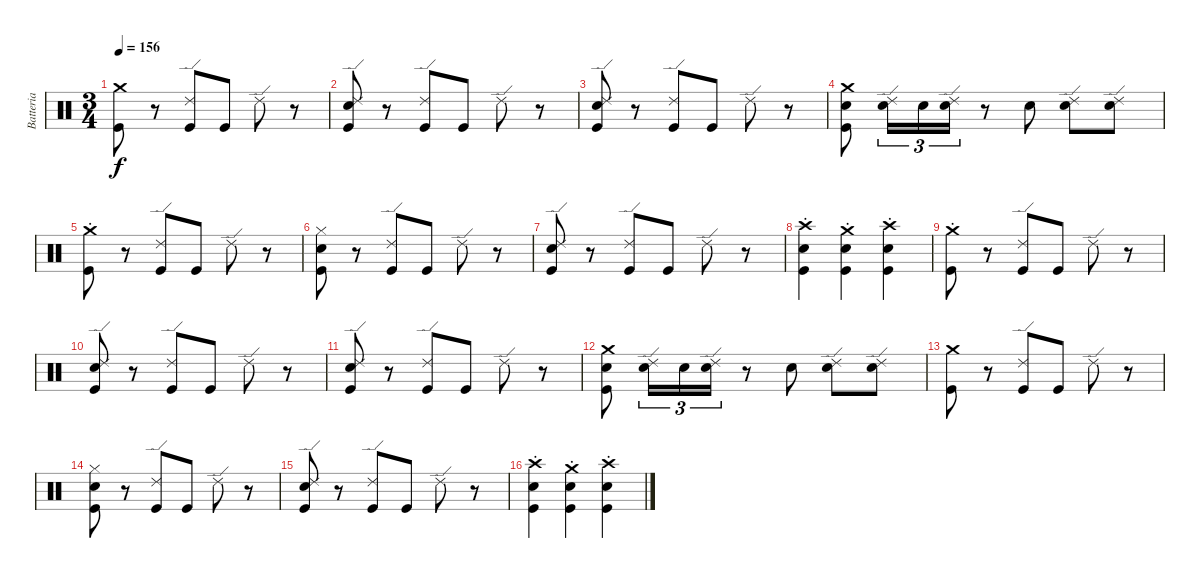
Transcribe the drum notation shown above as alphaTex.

\track ("Batteria" "Batteria") {instrument percussion}
\staff {score}
\articulation defaults
\ts (3 4)
\tempo 156
\clef neutral
\ks c
("Crash medium (hit)" "Kick (hit)").8{dy f} r.8 ("Ride (edge) 2" "Kick (hit)").8 "Kick (hit)".8 "Ride (edge) 2".8 r.8 |
("Ride (edge) 2" "Electric Snare (hit)" "Kick (hit)").8 r.8 ("Ride (edge) 2" "Kick (hit)").8 "Kick (hit)".8 "Ride (edge) 2".8 r.8 |
("Ride (edge) 2" "Electric Snare (hit)" "Kick (hit)").8 r.8 ("Ride (edge) 2" "Kick (hit)").8 "Kick (hit)".8 "Ride (edge) 2".8 r.8 |
("Crash medium (hit)" "Electric Snare (hit)" "Kick (hit)").8 ("Ride (edge) 2" "Electric Snare (hit)").16{tu (3 2)} "Electric Snare (hit)".16{tu (3 2)} ("Ride (edge) 2" "Electric Snare (hit)").16{tu (3 2)} r.8 "Electric Snare (hit)".8 ("Ride (edge) 2" "Electric Snare (hit)").8 ("Ride (edge) 2" "Electric Snare (hit)").8 |
("Crash medium (hit)"{st} "Kick (hit)"{st}).8 r.8 ("Ride (edge) 2" "Kick (hit)").8 "Kick (hit)".8 "Ride (edge) 2".8 r.8 |
("Hi-Hat (closed)" "Electric Snare (hit)" "Kick (hit)").8 r.8 ("Ride (edge) 2" "Kick (hit)").8 "Kick (hit)".8 "Ride (edge) 2".8 r.8 |
("Ride (edge) 2" "Electric Snare (hit)" "Kick (hit)").8 r.8 ("Ride (edge) 2" "Kick (hit)").8 "Kick (hit)".8 "Ride (edge) 2".8 r.8 |
("Crash high (hit)"{st} "Electric Snare (hit)"{st} "Kick (hit)"{st}).4 ("Crash medium (hit)"{st} "Electric Snare (hit)"{st} "Kick (hit)"{st}).4 ("Crash high (hit)"{st} "Electric Snare (hit)"{st} "Kick (hit)"{st}).4 |
("Crash medium (hit)"{st} "Kick (hit)"{st}).8 r.8 ("Ride (edge) 2" "Kick (hit)").8 "Kick (hit)".8 "Ride (edge) 2".8 r.8 |
("Ride (edge) 2" "Electric Snare (hit)" "Kick (hit)").8 r.8 ("Ride (edge) 2" "Kick (hit)").8 "Kick (hit)".8 "Ride (edge) 2".8 r.8 |
("Ride (edge) 2" "Electric Snare (hit)" "Kick (hit)").8 r.8 ("Ride (edge) 2" "Kick (hit)").8 "Kick (hit)".8 "Ride (edge) 2".8 r.8 |
("Crash medium (hit)" "Electric Snare (hit)" "Kick (hit)").8 ("Ride (edge) 2" "Electric Snare (hit)").16{tu (3 2)} "Electric Snare (hit)".16{tu (3 2)} ("Ride (edge) 2" "Electric Snare (hit)").16{tu (3 2)} r.8 "Electric Snare (hit)".8 ("Ride (edge) 2" "Electric Snare (hit)").8 ("Ride (edge) 2" "Electric Snare (hit)").8 |
("Crash medium (hit)" "Kick (hit)").8 r.8 ("Ride (edge) 2" "Kick (hit)").8 "Kick (hit)".8 "Ride (edge) 2".8 r.8 |
("Hi-Hat (closed)" "Electric Snare (hit)" "Kick (hit)").8 r.8 ("Ride (edge) 2" "Kick (hit)").8 "Kick (hit)".8 "Ride (edge) 2".8 r.8 |
("Ride (edge) 2" "Electric Snare (hit)" "Kick (hit)").8 r.8 ("Ride (edge) 2" "Kick (hit)").8 "Kick (hit)".8 "Ride (edge) 2".8 r.8 |
("Crash high (hit)"{st} "Electric Snare (hit)"{st} "Kick (hit)"{st}).4 ("Crash medium (hit)"{st} "Electric Snare (hit)"{st} "Kick (hit)"{st}).4 ("Crash high (hit)"{st} "Electric Snare (hit)"{st} "Kick (hit)"{st}).4
